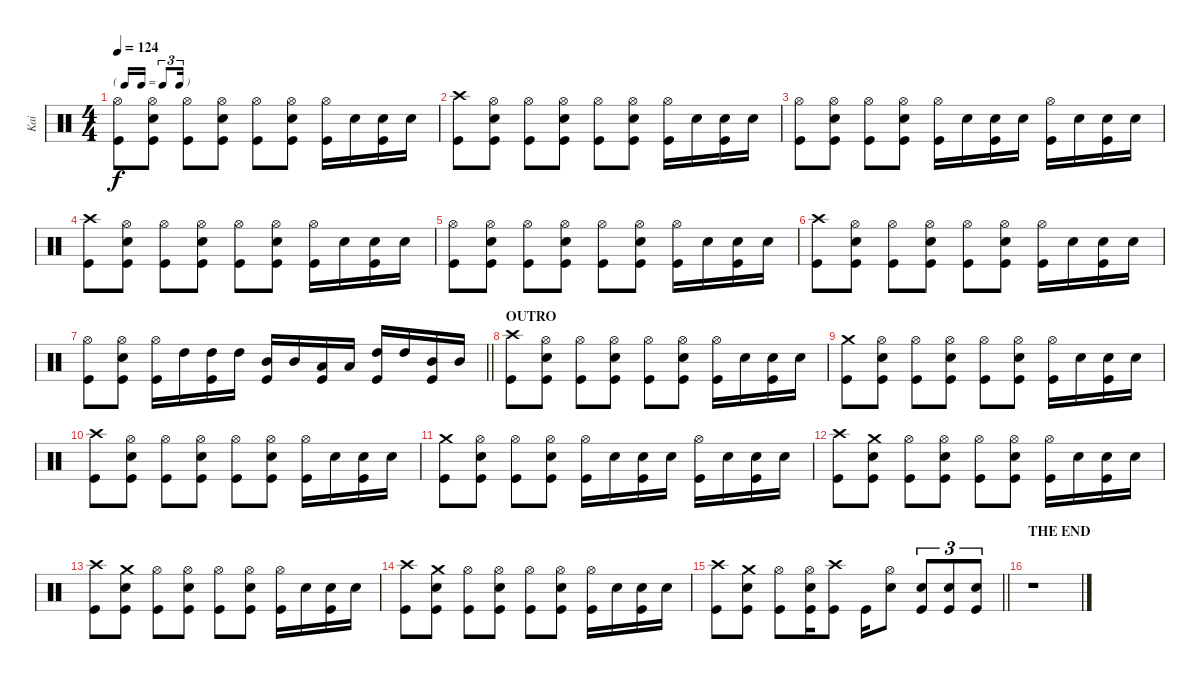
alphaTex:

\track ("Kai" "Kai") {instrument percussion}
\staff {score}
\articulation defaults
\ts (4 4)
\tf triplet16th
\tempo 124
\clef neutral
\ks c
("Hi-Hat (open)" "Kick (hit)").8{dy f} ("Hi-Hat (open)" "Snare (hit) 2" "Kick (hit)").8 ("Hi-Hat (open)" "Kick (hit)").8 ("Hi-Hat (open)" "Snare (hit) 2" "Kick (hit)").8 ("Kick (hit)" "Hi-Hat (open)").8 ("Snare (hit) 2" "Hi-Hat (open)" "Kick (hit)").8 ("Kick (hit)" "Hi-Hat (open)").16 "Snare (hit) 2".16 ("Snare (hit) 2" "Kick (hit)").16 "Snare (hit) 2".16 |
("Kick (hit)" "Crash high (hit)").8 ("Hi-Hat (open)" "Snare (hit) 2" "Kick (hit)").8 ("Hi-Hat (open)" "Kick (hit)").8 ("Hi-Hat (open)" "Snare (hit) 2" "Kick (hit)").8 ("Kick (hit)" "Hi-Hat (open)").8 ("Snare (hit) 2" "Hi-Hat (open)" "Kick (hit)").8 ("Kick (hit)" "Hi-Hat (open)").16 "Snare (hit) 2".16 ("Snare (hit) 2" "Kick (hit)").16 "Snare (hit) 2".16 |
("Hi-Hat (open)" "Kick (hit)").8 ("Hi-Hat (open)" "Snare (hit) 2" "Kick (hit)").8 ("Hi-Hat (open)" "Kick (hit)").8 ("Hi-Hat (open)" "Snare (hit) 2" "Kick (hit)").8 ("Kick (hit)" "Hi-Hat (open)").16 "Snare (hit) 2".16 ("Snare (hit) 2" "Kick (hit)").16 "Snare (hit) 2".16 ("Kick (hit)" "Hi-Hat (open)").16 "Snare (hit) 2".16 ("Snare (hit) 2" "Kick (hit)").16 "Snare (hit) 2".16 |
("Kick (hit)" "Crash high (hit)").8 ("Hi-Hat (open)" "Snare (hit) 2" "Kick (hit)").8 ("Hi-Hat (open)" "Kick (hit)").8 ("Hi-Hat (open)" "Snare (hit) 2" "Kick (hit)").8 ("Kick (hit)" "Hi-Hat (open)").8 ("Snare (hit) 2" "Hi-Hat (open)" "Kick (hit)").8 ("Kick (hit)" "Hi-Hat (open)").16 "Snare (hit) 2".16 ("Snare (hit) 2" "Kick (hit)").16 "Snare (hit) 2".16 |
("Hi-Hat (open)" "Kick (hit)").8 ("Hi-Hat (open)" "Snare (hit) 2" "Kick (hit)").8 ("Hi-Hat (open)" "Kick (hit)").8 ("Hi-Hat (open)" "Snare (hit) 2" "Kick (hit)").8 ("Kick (hit)" "Hi-Hat (open)").8 ("Snare (hit) 2" "Hi-Hat (open)" "Kick (hit)").8 ("Kick (hit)" "Hi-Hat (open)").16 "Snare (hit) 2".16 ("Snare (hit) 2" "Kick (hit)").16 "Snare (hit) 2".16 |
("Kick (hit)" "Crash high (hit)").8 ("Hi-Hat (open)" "Snare (hit) 2" "Kick (hit)").8 ("Hi-Hat (open)" "Kick (hit)").8 ("Hi-Hat (open)" "Snare (hit) 2" "Kick (hit)").8 ("Kick (hit)" "Hi-Hat (open)").8 ("Snare (hit) 2" "Hi-Hat (open)" "Kick (hit)").8 ("Kick (hit)" "Hi-Hat (open)").16 "Snare (hit) 2".16 ("Snare (hit) 2" "Kick (hit)").16 "Snare (hit) 2".16 |
\barLineRight lightlight
("Hi-Hat (open)" "Kick (hit)").8 ("Hi-Hat (open)" "Snare (hit) 2" "Kick (hit)").8 ("Kick (hit)" "Hi-Hat (open)").16 "High Tom (hit)".16 ("High Tom (hit)" "Kick (hit)").16 "High Tom (hit)".16 ("Mid Tom (hit)" "Kick (hit)").16 "Mid Tom (hit)".16 ("Low Tom (hit)" "Kick (hit)").16 "Low Tom (hit)".16 ("High Tom (hit)" "Kick (hit)").16 "High Tom (hit)".16 ("Mid Tom (hit)" "Kick (hit)").16 "Mid Tom (hit)".16 |
\section ("" "OUTRO")
("Kick (hit)" "Crash high (hit)").8 ("Hi-Hat (open)" "Snare (hit) 2" "Kick (hit)").8 ("Hi-Hat (open)" "Kick (hit)").8 ("Hi-Hat (open)" "Snare (hit) 2" "Kick (hit)").8 ("Kick (hit)" "Hi-Hat (open)").8 ("Snare (hit) 2" "Hi-Hat (open)" "Kick (hit)").8 ("Kick (hit)" "Hi-Hat (open)").16 "Snare (hit) 2".16 ("Snare (hit) 2" "Kick (hit)").16 "Snare (hit) 2".16 |
("Crash medium (hit)" "Kick (hit)").8 ("Hi-Hat (open)" "Snare (hit) 2" "Kick (hit)").8 ("Hi-Hat (open)" "Kick (hit)").8 ("Hi-Hat (open)" "Snare (hit) 2" "Kick (hit)").8 ("Kick (hit)" "Hi-Hat (open)").8 ("Snare (hit) 2" "Hi-Hat (open)" "Kick (hit)").8 ("Kick (hit)" "Hi-Hat (open)").16 "Snare (hit) 2".16 ("Snare (hit) 2" "Kick (hit)").16 "Snare (hit) 2".16 |
("Kick (hit)" "Crash high (hit)").8 ("Hi-Hat (open)" "Snare (hit) 2" "Kick (hit)").8 ("Hi-Hat (open)" "Kick (hit)").8 ("Hi-Hat (open)" "Snare (hit) 2" "Kick (hit)").8 ("Kick (hit)" "Hi-Hat (open)").8 ("Snare (hit) 2" "Hi-Hat (open)" "Kick (hit)").8 ("Kick (hit)" "Hi-Hat (open)").16 "Snare (hit) 2".16 ("Snare (hit) 2" "Kick (hit)").16 "Snare (hit) 2".16 |
("Crash medium (hit)" "Kick (hit)").8 ("Hi-Hat (open)" "Snare (hit) 2" "Kick (hit)").8 ("Hi-Hat (open)" "Kick (hit)").8 ("Hi-Hat (open)" "Snare (hit) 2" "Kick (hit)").8 ("Kick (hit)" "Hi-Hat (open)").16 "Snare (hit) 2".16 ("Snare (hit) 2" "Kick (hit)").16 "Snare (hit) 2".16 ("Kick (hit)" "Hi-Hat (open)").16 "Snare (hit) 2".16 ("Snare (hit) 2" "Kick (hit)").16 "Snare (hit) 2".16 |
("Kick (hit)" "Crash high (hit)").8 ("Crash medium (hit)" "Snare (hit) 2" "Kick (hit)").8 ("Hi-Hat (open)" "Kick (hit)").8 ("Hi-Hat (open)" "Snare (hit) 2" "Kick (hit)").8 ("Kick (hit)" "Hi-Hat (open)").8 ("Snare (hit) 2" "Hi-Hat (open)" "Kick (hit)").8 ("Kick (hit)" "Hi-Hat (open)").16 "Snare (hit) 2".16 ("Snare (hit) 2" "Kick (hit)").16 "Snare (hit) 2".16 |
("Kick (hit)" "Crash high (hit)").8 ("Crash medium (hit)" "Snare (hit) 2" "Kick (hit)").8 ("Hi-Hat (open)" "Kick (hit)").8 ("Hi-Hat (open)" "Snare (hit) 2" "Kick (hit)").8 ("Kick (hit)" "Hi-Hat (open)").8 ("Snare (hit) 2" "Hi-Hat (open)" "Kick (hit)").8 ("Kick (hit)" "Hi-Hat (open)").16 "Snare (hit) 2".16 ("Snare (hit) 2" "Kick (hit)").16 "Snare (hit) 2".16 |
("Kick (hit)" "Crash high (hit)").8 ("Crash medium (hit)" "Snare (hit) 2" "Kick (hit)").8 ("Hi-Hat (open)" "Kick (hit)").8 ("Hi-Hat (open)" "Snare (hit) 2" "Kick (hit)").8 ("Kick (hit)" "Hi-Hat (open)").8 ("Snare (hit) 2" "Hi-Hat (open)" "Kick (hit)").8 ("Kick (hit)" "Hi-Hat (open)").16 "Snare (hit) 2".16 ("Snare (hit) 2" "Kick (hit)").16 "Snare (hit) 2".16 |
\barLineRight lightlight
("Kick (hit)" "Crash high (hit)").8 ("Crash medium (hit)" "Snare (hit) 2" "Kick (hit)").8 ("Hi-Hat (open)" "Kick (hit)").8 ("Hi-Hat (open)" "Snare (hit) 2" "Kick (hit)").16 ("Kick (hit)" "Crash high (hit)").8 "Kick (hit)".16 ("Hi-Hat (open)" "Snare (hit) 2").8 ("Kick (hit)" "Snare (hit) 2").8{tu (3 2)} ("Snare (hit) 2" "Kick (hit)").8{tu (3 2)} ("Snare (hit) 2" "Kick (hit)").8{tu (3 2)} |
\section ("" "THE END")
r.1
